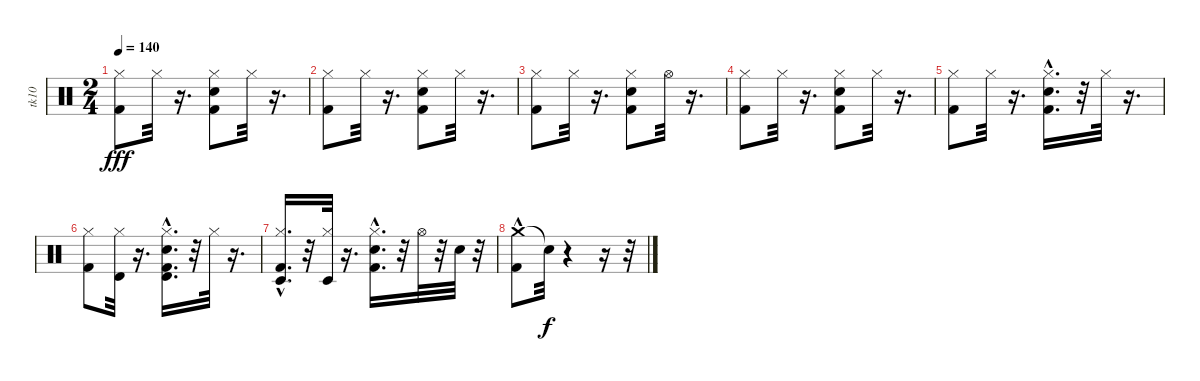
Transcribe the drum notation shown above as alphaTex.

\track ("tk10" "tk10") {instrument percussion}
\staff {score}
\articulation defaults
\ts (2 4)
\tempo 140
\clef neutral
\ks c
("Kick (hit) 2" "Hi-Hat (closed)").8{dy fff} "Hi-Hat (closed)".32 r.16{d} ("Hi-Hat (closed)" "Snare (hit) 2" "Kick (hit) 2").8 "Hi-Hat (closed)".32 r.16{d} |
("Kick (hit) 2" "Hi-Hat (closed)").8 "Hi-Hat (closed)".32 r.16{d} ("Snare (hit) 2" "Kick (hit) 2" "Hi-Hat (closed)").8 "Hi-Hat (closed)".32 r.16{d} |
("Kick (hit) 2" "Hi-Hat (closed)").8 "Hi-Hat (closed)".32 r.16{d} ("Kick (hit) 2" "Hi-Hat (closed)" "Snare (hit) 2").8 "Hi-Hat (open)".32 r.16{d} |
("Kick (hit) 2" "Hi-Hat (closed)").8 "Hi-Hat (closed)".32 r.16{d} ("Snare (hit) 2" "Kick (hit) 2" "Hi-Hat (closed)").8 "Hi-Hat (closed)".32 r.16{d} |
("Kick (hit) 2" "Hi-Hat (closed)").8 "Hi-Hat (closed)".32 r.16{d} ("Snare (hit) 2"{hac} "Kick (hit) 2"{hac} "Hi-Hat (closed)").16{d} r.32 "Hi-Hat (closed)".32 r.16{d} |
("Kick (hit) 2" "Hi-Hat (closed)").8 ("Timbale high (hit)" "Hi-Hat (closed)").32 r.16{d} ("Kick (hit) 2"{hac} "Timbale high (hit)" "Snare (hit) 2"{hac} "Hi-Hat (closed)").16{d} r.32 "Hi-Hat (closed)".32 r.16{d} |
("Kick (hit) 2"{hac} "Timbale low (hit)" "Hi-Hat (closed)").16{d} r.32 ("Timbale low (hit)" "Hi-Hat (closed)").32 r.16{d} ("Snare (hit) 2"{hac} "Kick (hit) 2"{hac} "Hi-Hat (closed)").16{d} r.32 "Hi-Hat (open)".32 r.32 "Snare (hit) 2".32 r.32 |
("Crash medium (hit)"{hac} "Kick (hit) 2").8 "Snare (hit)"{t}.32{dy f} r.4 r.16 r.32
